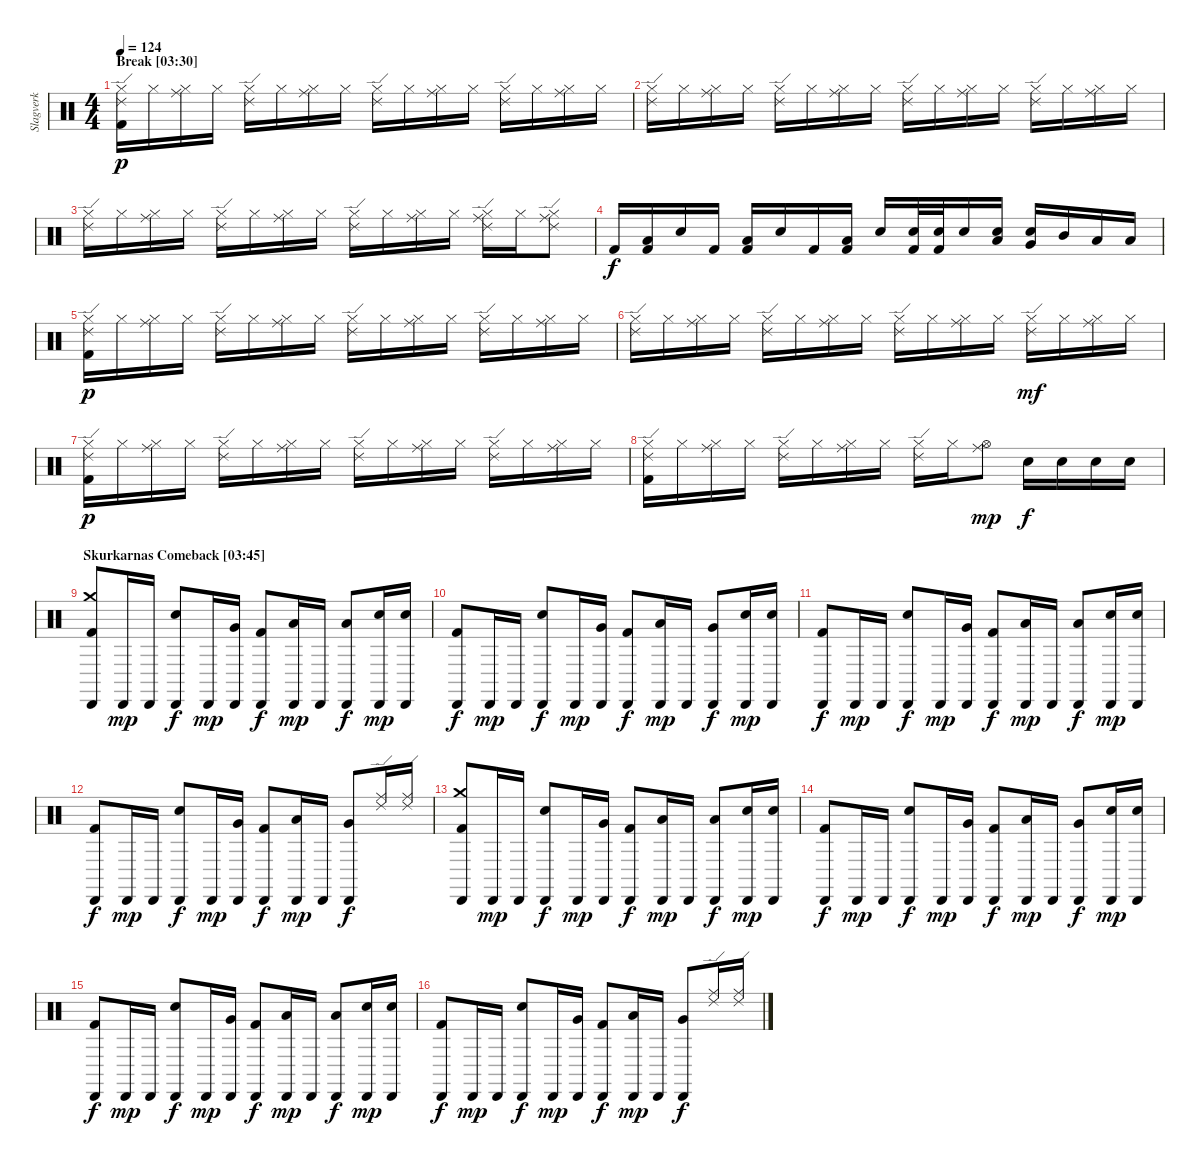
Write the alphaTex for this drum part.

\track ("Slagverk" "Slagverk") {instrument percussion}
\staff {score}
\articulation defaults
\ts (4 4)
\section ("" "Break [03:30]")
\tempo 124
\clef neutral
\ks c
("Ride (edge) 2" "Hi-Hat (closed)" "Kick (hit) 2").16{dy p} "Hi-Hat (closed)".16 ("Ride (middle)" "Hi-Hat (closed)").16 "Hi-Hat (closed)".16 ("Ride (edge) 2" "Hi-Hat (closed)").16 "Hi-Hat (closed)".16 ("Ride (middle)" "Hi-Hat (closed)").16 "Hi-Hat (closed)".16 ("Ride (edge) 2" "Hi-Hat (closed)").16 "Hi-Hat (closed)".16 ("Ride (middle)" "Hi-Hat (closed)").16 "Hi-Hat (closed)".16 ("Ride (edge) 2" "Hi-Hat (closed)").16 "Hi-Hat (closed)".16 ("Ride (middle)" "Hi-Hat (closed)").16 "Hi-Hat (closed)".16 |
("Ride (edge) 2" "Hi-Hat (closed)").16 "Hi-Hat (closed)".16 ("Ride (middle)" "Hi-Hat (closed)").16 "Hi-Hat (closed)".16 ("Ride (edge) 2" "Hi-Hat (closed)").16 "Hi-Hat (closed)".16 ("Ride (middle)" "Hi-Hat (closed)").16 "Hi-Hat (closed)".16 ("Ride (edge) 2" "Hi-Hat (closed)").16 "Hi-Hat (closed)".16 ("Ride (middle)" "Hi-Hat (closed)").16 "Hi-Hat (closed)".16 ("Ride (edge) 2" "Hi-Hat (closed)").16 "Hi-Hat (closed)".16 ("Ride (middle)" "Hi-Hat (closed)").16 "Hi-Hat (closed)".16 |
("Ride (edge) 2" "Hi-Hat (closed)").16 "Hi-Hat (closed)".16 ("Ride (middle)" "Hi-Hat (closed)").16 "Hi-Hat (closed)".16 ("Ride (edge) 2" "Hi-Hat (closed)").16 "Hi-Hat (closed)".16 ("Ride (middle)" "Hi-Hat (closed)").16 "Hi-Hat (closed)".16 ("Ride (edge) 2" "Hi-Hat (closed)").16 "Hi-Hat (closed)".16 ("Ride (middle)" "Hi-Hat (closed)").16 "Hi-Hat (closed)".16 ("Ride (edge) 2" "Ride (middle)" "Hi-Hat (closed)").16 "Hi-Hat (closed)".16 ("Ride (edge) 2" "Ride (middle)" "Hi-Hat (closed)").8 |
"Kick (hit) 2".16{dy f} ("Low Tom (hit)" "Kick (hit) 2").16 "Electric Snare (hit)".16 "Kick (hit) 2".16 ("Low Tom (hit)" "Kick (hit) 2").16 "Electric Snare (hit)".16 "Kick (hit) 2".16 ("Low Tom (hit)" "Kick (hit) 2").16 "Electric Snare (hit)".16 ("Electric Snare (hit)" "Kick (hit) 2").32 ("Electric Snare (hit)" "Kick (hit) 2").32 "Electric Snare (hit)".16 ("Low Tom (hit)" "Electric Snare (hit)").16 ("Very Low Tom (hit)" "Electric Snare (hit)").16 "Mid Tom (hit)".16 "Low Tom (hit)".16 "Low Floor Tom (hit)".16 |
("Ride (edge) 2" "Hi-Hat (closed)" "Kick (hit) 2").16{dy p} "Hi-Hat (closed)".16 ("Ride (middle)" "Hi-Hat (closed)").16 "Hi-Hat (closed)".16 ("Ride (edge) 2" "Hi-Hat (closed)").16 "Hi-Hat (closed)".16 ("Ride (middle)" "Hi-Hat (closed)").16 "Hi-Hat (closed)".16 ("Ride (edge) 2" "Hi-Hat (closed)").16 "Hi-Hat (closed)".16 ("Ride (middle)" "Hi-Hat (closed)").16 "Hi-Hat (closed)".16 ("Ride (edge) 2" "Hi-Hat (closed)").16 "Hi-Hat (closed)".16 ("Ride (middle)" "Hi-Hat (closed)").16 "Hi-Hat (closed)".16 |
("Ride (edge) 2" "Hi-Hat (closed)").16 "Hi-Hat (closed)".16 ("Ride (middle)" "Hi-Hat (closed)").16 "Hi-Hat (closed)".16 ("Ride (edge) 2" "Hi-Hat (closed)").16 "Hi-Hat (closed)".16 ("Ride (middle)" "Hi-Hat (closed)").16 "Hi-Hat (closed)".16 ("Ride (edge) 2" "Hi-Hat (closed)").16 "Hi-Hat (closed)".16 ("Ride (middle)" "Hi-Hat (closed)").16 "Hi-Hat (closed)".16 ("Ride (edge) 2" "Hi-Hat (closed)").16{dy mf} "Hi-Hat (closed)".16 ("Ride (middle)" "Hi-Hat (closed)").16 "Hi-Hat (closed)".16 |
("Ride (edge) 2" "Hi-Hat (closed)" "Kick (hit) 2").16{dy p} "Hi-Hat (closed)".16 ("Ride (middle)" "Hi-Hat (closed)").16 "Hi-Hat (closed)".16 ("Ride (edge) 2" "Hi-Hat (closed)").16 "Hi-Hat (closed)".16 ("Ride (middle)" "Hi-Hat (closed)").16 "Hi-Hat (closed)".16 ("Ride (edge) 2" "Hi-Hat (closed)").16 "Hi-Hat (closed)".16 ("Ride (middle)" "Hi-Hat (closed)").16 "Hi-Hat (closed)".16 ("Ride (edge) 2" "Hi-Hat (closed)").16 "Hi-Hat (closed)".16 ("Ride (middle)" "Hi-Hat (closed)").16 "Hi-Hat (closed)".16 |
("Ride (edge) 2" "Hi-Hat (closed)" "Kick (hit) 2").16 "Hi-Hat (closed)".16 ("Ride (middle)" "Hi-Hat (closed)").16 "Hi-Hat (closed)".16 ("Ride (edge) 2" "Hi-Hat (closed)").16 "Hi-Hat (closed)".16 ("Ride (middle)" "Hi-Hat (closed)").16 "Hi-Hat (closed)".16 ("Ride (edge) 2" "Hi-Hat (closed)").16 "Hi-Hat (closed)".16 ("Ride (middle)" "Hi-Hat (open)").8{dy mp} "Electric Snare (hit)".16{dy f} "Electric Snare (hit)".16 "Electric Snare (hit)".16 "Electric Snare (hit)".16 |
\section ("" "Skurkarnas Comeback [03:45]")
("Cabasa (hit)" "Crash medium (hit)" "Kick (hit) 2").8 "Cabasa (hit)".16{dy mp} "Cabasa (hit)".16 ("Cabasa (hit)" "Electric Snare (hit)").8{dy f} "Cabasa (hit)".16{dy mp} ("Cabasa (hit)" "Very Low Tom (hit)").16 ("Cabasa (hit)" "Kick (hit) 2").8{dy f} ("Cabasa (hit)" "Low Floor Tom (hit)").16{dy mp} "Cabasa (hit)".16 ("Cabasa (hit)" "Low Tom (hit)").8{dy f} ("Cabasa (hit)" "Electric Snare (hit)").16{dy mp} ("Cabasa (hit)" "Electric Snare (hit)").16 |
("Cabasa (hit)" "Kick (hit) 2").8{dy f} "Cabasa (hit)".16{dy mp} "Cabasa (hit)".16 ("Cabasa (hit)" "Electric Snare (hit)").8{dy f} "Cabasa (hit)".16{dy mp} ("Cabasa (hit)" "Very Low Tom (hit)").16 ("Cabasa (hit)" "Kick (hit) 2").8{dy f} ("Cabasa (hit)" "Low Floor Tom (hit)").16{dy mp} "Cabasa (hit)".16 ("Cabasa (hit)" "Very Low Tom (hit)").8{dy f} ("Cabasa (hit)" "Electric Snare (hit)").16{dy mp} ("Cabasa (hit)" "Electric Snare (hit)").16 |
("Cabasa (hit)" "Kick (hit) 2").8{dy f} "Cabasa (hit)".16{dy mp} "Cabasa (hit)".16 ("Cabasa (hit)" "Electric Snare (hit)").8{dy f} "Cabasa (hit)".16{dy mp} ("Cabasa (hit)" "Very Low Tom (hit)").16 ("Cabasa (hit)" "Kick (hit) 2").8{dy f} ("Cabasa (hit)" "Low Floor Tom (hit)").16{dy mp} "Cabasa (hit)".16 ("Cabasa (hit)" "Low Tom (hit)").8{dy f} ("Cabasa (hit)" "Electric Snare (hit)").16{dy mp} ("Cabasa (hit)" "Electric Snare (hit)").16 |
("Cabasa (hit)" "Kick (hit) 2").8{dy f} "Cabasa (hit)".16{dy mp} "Cabasa (hit)".16 ("Cabasa (hit)" "Electric Snare (hit)").8{dy f} "Cabasa (hit)".16{dy mp} ("Cabasa (hit)" "Very Low Tom (hit)").16 ("Cabasa (hit)" "Kick (hit) 2").8{dy f} ("Cabasa (hit)" "Low Floor Tom (hit)").16{dy mp} "Cabasa (hit)".16 ("Cabasa (hit)" "Very Low Tom (hit)").8{dy f} ("Ride (middle)" "Ride (edge) 2").16 ("Ride (middle)" "Ride (edge) 2").16 |
("Cabasa (hit)" "Crash medium (hit)" "Kick (hit) 2").8 "Cabasa (hit)".16{dy mp} "Cabasa (hit)".16 ("Cabasa (hit)" "Electric Snare (hit)").8{dy f} "Cabasa (hit)".16{dy mp} ("Cabasa (hit)" "Very Low Tom (hit)").16 ("Cabasa (hit)" "Kick (hit) 2").8{dy f} ("Cabasa (hit)" "Low Floor Tom (hit)").16{dy mp} "Cabasa (hit)".16 ("Cabasa (hit)" "Low Tom (hit)").8{dy f} ("Cabasa (hit)" "Electric Snare (hit)").16{dy mp} ("Cabasa (hit)" "Electric Snare (hit)").16 |
("Cabasa (hit)" "Kick (hit) 2").8{dy f} "Cabasa (hit)".16{dy mp} "Cabasa (hit)".16 ("Cabasa (hit)" "Electric Snare (hit)").8{dy f} "Cabasa (hit)".16{dy mp} ("Cabasa (hit)" "Very Low Tom (hit)").16 ("Cabasa (hit)" "Kick (hit) 2").8{dy f} ("Cabasa (hit)" "Low Floor Tom (hit)").16{dy mp} "Cabasa (hit)".16 ("Cabasa (hit)" "Very Low Tom (hit)").8{dy f} ("Cabasa (hit)" "Electric Snare (hit)").16{dy mp} ("Cabasa (hit)" "Electric Snare (hit)").16 |
("Cabasa (hit)" "Kick (hit) 2").8{dy f} "Cabasa (hit)".16{dy mp} "Cabasa (hit)".16 ("Cabasa (hit)" "Electric Snare (hit)").8{dy f} "Cabasa (hit)".16{dy mp} ("Cabasa (hit)" "Very Low Tom (hit)").16 ("Cabasa (hit)" "Kick (hit) 2").8{dy f} ("Cabasa (hit)" "Low Floor Tom (hit)").16{dy mp} "Cabasa (hit)".16 ("Cabasa (hit)" "Low Tom (hit)").8{dy f} ("Cabasa (hit)" "Electric Snare (hit)").16{dy mp} ("Cabasa (hit)" "Electric Snare (hit)").16 |
("Cabasa (hit)" "Kick (hit) 2").8{dy f} "Cabasa (hit)".16{dy mp} "Cabasa (hit)".16 ("Cabasa (hit)" "Electric Snare (hit)").8{dy f} "Cabasa (hit)".16{dy mp} ("Cabasa (hit)" "Very Low Tom (hit)").16 ("Cabasa (hit)" "Kick (hit) 2").8{dy f} ("Cabasa (hit)" "Low Floor Tom (hit)").16{dy mp} "Cabasa (hit)".16 ("Cabasa (hit)" "Very Low Tom (hit)").8{dy f} ("Ride (middle)" "Ride (edge) 2").16 ("Ride (middle)" "Ride (edge) 2").16
